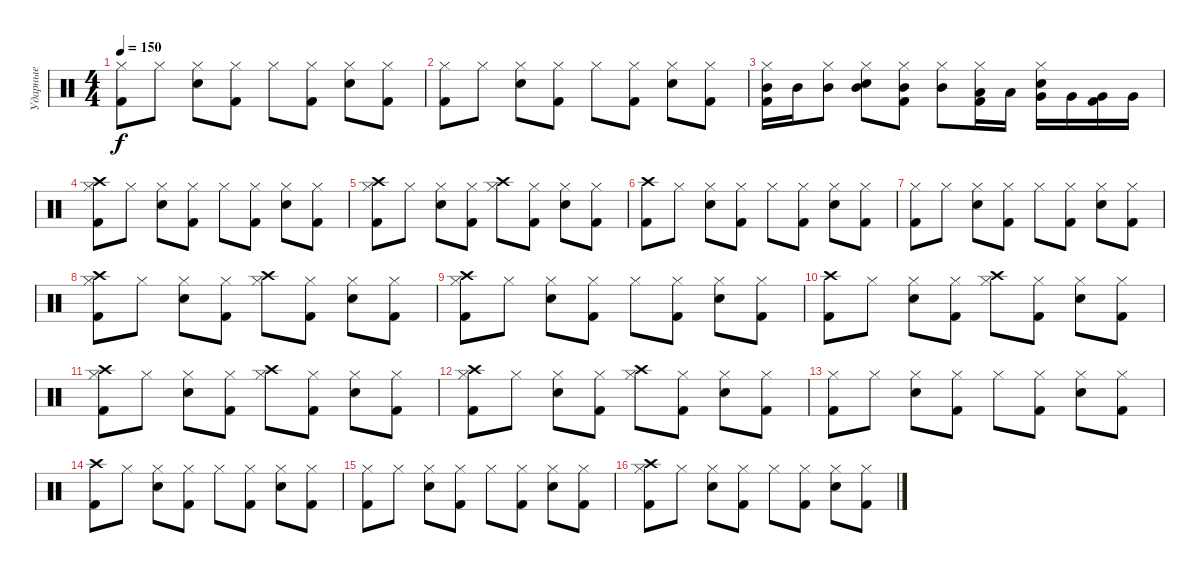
\track ("Ударные" "Ударные") {instrument percussion}
\staff {score}
\articulation defaults
\ts (4 4)
\tempo 150
\clef neutral
\ks c
("Hi-Hat (closed)" "Kick (hit) 2").8{dy f} "Hi-Hat (closed)".8 ("Snare (hit) 2" "Hi-Hat (closed)").8 ("Hi-Hat (closed)" "Kick (hit) 2").8 "Hi-Hat (closed)".8 ("Hi-Hat (closed)" "Kick (hit) 2").8 ("Snare (hit) 2" "Hi-Hat (closed)").8 ("Hi-Hat (closed)" "Kick (hit) 2").8 |
("Hi-Hat (closed)" "Kick (hit) 2").8 "Hi-Hat (closed)".8 ("Snare (hit) 2" "Hi-Hat (closed)").8 ("Hi-Hat (closed)" "Kick (hit) 2").8 "Hi-Hat (closed)".8 ("Hi-Hat (closed)" "Kick (hit) 2").8 ("Snare (hit) 2" "Hi-Hat (closed)").8 ("Hi-Hat (closed)" "Kick (hit) 2").8 |
("Mid Tom (hit)" "Hi-Hat (closed)" "Kick (hit) 2").16 "Mid Tom (hit)".16 ("Mid Tom (hit)" "Hi-Hat (closed)").8 ("Mid Tom (hit)" "Hi-Hat (closed)" "Snare (hit) 2").8 ("Mid Tom (hit)" "Hi-Hat (closed)" "Kick (hit) 2").8 ("Mid Tom (hit)" "Hi-Hat (closed)").8 ("Low Tom (hit)" "Hi-Hat (closed)" "Kick (hit) 2").16 "Low Tom (hit)".16 ("Very Low Tom (hit)" "Hi-Hat (closed)" "Snare (hit) 2").16 "Very Low Tom (hit)".16 ("Very Low Tom (hit)" "Kick (hit) 2").16 "Very Low Tom (hit)".16 |
("Crash high (hit)" "Hi-Hat (closed)" "Kick (hit) 2").8 "Hi-Hat (closed)".8 ("Snare (hit) 2" "Hi-Hat (closed)").8 ("Hi-Hat (closed)" "Kick (hit) 2").8 "Hi-Hat (closed)".8 ("Hi-Hat (closed)" "Kick (hit) 2").8 ("Snare (hit) 2" "Hi-Hat (closed)").8 ("Hi-Hat (closed)" "Kick (hit) 2").8 |
("Crash high (hit)" "Hi-Hat (closed)" "Kick (hit) 2").8 "Hi-Hat (closed)".8 ("Snare (hit) 2" "Hi-Hat (closed)").8 ("Hi-Hat (closed)" "Kick (hit) 2").8 ("Crash high (hit)" "Hi-Hat (closed)").8 ("Hi-Hat (closed)" "Kick (hit) 2").8 ("Snare (hit) 2" "Hi-Hat (closed)").8 ("Hi-Hat (closed)" "Kick (hit) 2").8 |
("Crash high (hit)" "Kick (hit) 2").8 "Hi-Hat (closed)".8 ("Hi-Hat (closed)" "Snare (hit) 2").8 ("Hi-Hat (closed)" "Kick (hit) 2").8 "Hi-Hat (closed)".8 ("Hi-Hat (closed)" "Kick (hit) 2").8 ("Hi-Hat (closed)" "Snare (hit) 2").8 ("Hi-Hat (closed)" "Kick (hit) 2").8 |
("Hi-Hat (closed)" "Kick (hit) 2").8 "Hi-Hat (closed)".8 ("Hi-Hat (closed)" "Snare (hit) 2").8 ("Hi-Hat (closed)" "Kick (hit) 2").8 "Hi-Hat (closed)".8 ("Hi-Hat (closed)" "Kick (hit) 2").8 ("Hi-Hat (closed)" "Snare (hit) 2").8 ("Hi-Hat (closed)" "Kick (hit) 2").8 |
("Hi-Hat (closed)" "Crash high (hit)" "Kick (hit) 2").8 "Hi-Hat (closed)".8 ("Hi-Hat (closed)" "Snare (hit) 2").8 ("Hi-Hat (closed)" "Kick (hit) 2").8 ("Hi-Hat (closed)" "Crash high (hit)").8 ("Hi-Hat (closed)" "Kick (hit) 2").8 ("Hi-Hat (closed)" "Snare (hit) 2").8 ("Hi-Hat (closed)" "Kick (hit) 2").8 |
("Hi-Hat (closed)" "Crash high (hit)" "Kick (hit) 2").8 "Hi-Hat (closed)".8 ("Hi-Hat (closed)" "Snare (hit) 2").8 ("Hi-Hat (closed)" "Kick (hit) 2").8 "Hi-Hat (closed)".8 ("Hi-Hat (closed)" "Kick (hit) 2").8 ("Hi-Hat (closed)" "Snare (hit) 2").8 ("Hi-Hat (closed)" "Kick (hit) 2").8 |
("Crash high (hit)" "Kick (hit) 2").8 "Hi-Hat (closed)".8 ("Hi-Hat (closed)" "Snare (hit) 2").8 ("Hi-Hat (closed)" "Kick (hit) 2").8 ("Hi-Hat (closed)" "Crash high (hit)").8 ("Hi-Hat (closed)" "Kick (hit) 2").8 ("Hi-Hat (closed)" "Snare (hit) 2").8 ("Hi-Hat (closed)" "Kick (hit) 2").8 |
("Hi-Hat (closed)" "Crash high (hit)" "Kick (hit) 2").8 "Hi-Hat (closed)".8 ("Hi-Hat (closed)" "Snare (hit) 2").8 ("Hi-Hat (closed)" "Kick (hit) 2").8 ("Hi-Hat (closed)" "Crash high (hit)").8 ("Hi-Hat (closed)" "Kick (hit) 2").8 ("Hi-Hat (closed)" "Snare (hit) 2").8 ("Hi-Hat (closed)" "Kick (hit) 2").8 |
("Hi-Hat (closed)" "Crash high (hit)" "Kick (hit) 2").8 "Hi-Hat (closed)".8 ("Hi-Hat (closed)" "Snare (hit) 2").8 ("Hi-Hat (closed)" "Kick (hit) 2").8 ("Hi-Hat (closed)" "Crash high (hit)").8 ("Hi-Hat (closed)" "Kick (hit) 2").8 ("Hi-Hat (closed)" "Snare (hit) 2").8 ("Hi-Hat (closed)" "Kick (hit) 2").8 |
("Hi-Hat (closed)" "Kick (hit) 2").8 "Hi-Hat (closed)".8 ("Hi-Hat (closed)" "Snare (hit) 2").8 ("Hi-Hat (closed)" "Kick (hit) 2").8 "Hi-Hat (closed)".8 ("Hi-Hat (closed)" "Kick (hit) 2").8 ("Hi-Hat (closed)" "Snare (hit) 2").8 ("Hi-Hat (closed)" "Kick (hit) 2").8 |
("Crash high (hit)" "Kick (hit) 2").8 "Hi-Hat (closed)".8 ("Hi-Hat (closed)" "Snare (hit) 2").8 ("Hi-Hat (closed)" "Kick (hit) 2").8 "Hi-Hat (closed)".8 ("Hi-Hat (closed)" "Kick (hit) 2").8 ("Hi-Hat (closed)" "Snare (hit) 2").8 ("Hi-Hat (closed)" "Kick (hit) 2").8 |
("Hi-Hat (closed)" "Kick (hit) 2").8 "Hi-Hat (closed)".8 ("Hi-Hat (closed)" "Snare (hit) 2").8 ("Hi-Hat (closed)" "Kick (hit) 2").8 "Hi-Hat (closed)".8 ("Hi-Hat (closed)" "Kick (hit) 2").8 ("Hi-Hat (closed)" "Snare (hit) 2").8 ("Hi-Hat (closed)" "Kick (hit) 2").8 |
("Hi-Hat (closed)" "Crash high (hit)" "Kick (hit) 2").8 "Hi-Hat (closed)".8 ("Hi-Hat (closed)" "Snare (hit) 2").8 ("Hi-Hat (closed)" "Kick (hit) 2").8 "Hi-Hat (closed)".8 ("Hi-Hat (closed)" "Kick (hit) 2").8 ("Hi-Hat (closed)" "Snare (hit) 2").8 ("Hi-Hat (closed)" "Kick (hit) 2").8
